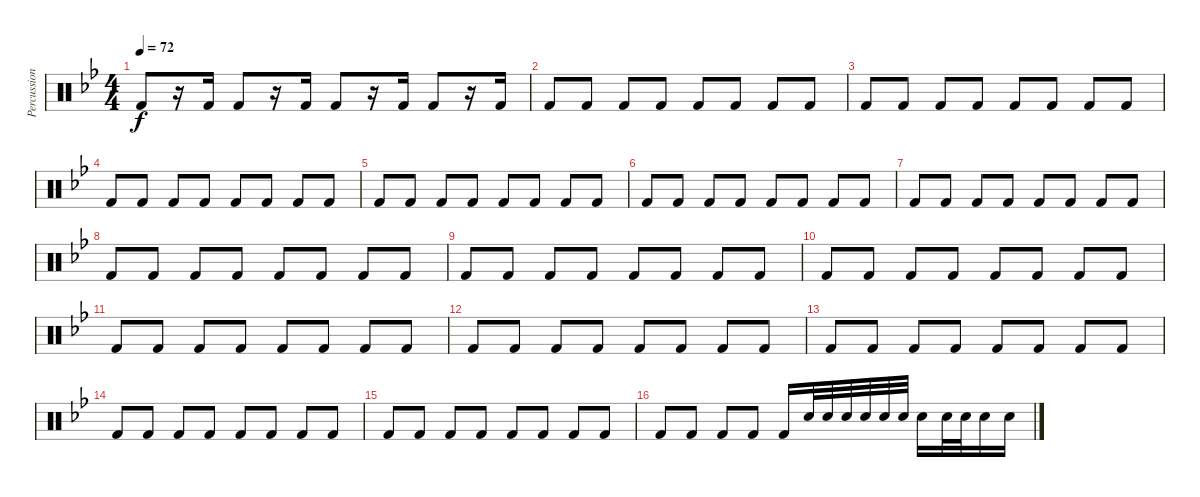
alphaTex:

\track ("Percussion" "Percussion") {instrument percussion}
\staff {score}
\articulation defaults
\ts (4 4)
\tempo 72
\clef neutral
\ks bb "Kick (hit) 2".8{dy f}
r.16 "Kick (hit) 2".16 "Kick (hit) 2".8 r.16 "Kick (hit) 2".16 "Kick (hit) 2".8 r.16 "Kick (hit) 2".16 "Kick (hit) 2".8 r.16 "Kick (hit) 2".16 |
"Kick (hit) 2".8 "Kick (hit) 2".8 "Kick (hit) 2".8 "Kick (hit) 2".8 "Kick (hit) 2".8 "Kick (hit) 2".8 "Kick (hit) 2".8 "Kick (hit) 2".8 |
"Kick (hit) 2".8 "Kick (hit) 2".8 "Kick (hit) 2".8 "Kick (hit) 2".8 "Kick (hit) 2".8 "Kick (hit) 2".8 "Kick (hit) 2".8 "Kick (hit) 2".8 |
"Kick (hit) 2".8 "Kick (hit) 2".8 "Kick (hit) 2".8 "Kick (hit) 2".8 "Kick (hit) 2".8 "Kick (hit) 2".8 "Kick (hit) 2".8 "Kick (hit) 2".8 |
"Kick (hit) 2".8 "Kick (hit) 2".8 "Kick (hit) 2".8 "Kick (hit) 2".8 "Kick (hit) 2".8 "Kick (hit) 2".8 "Kick (hit) 2".8 "Kick (hit) 2".8 |
"Kick (hit) 2".8 "Kick (hit) 2".8 "Kick (hit) 2".8 "Kick (hit) 2".8 "Kick (hit) 2".8 "Kick (hit) 2".8 "Kick (hit) 2".8 "Kick (hit) 2".8 |
"Kick (hit) 2".8 "Kick (hit) 2".8 "Kick (hit) 2".8 "Kick (hit) 2".8 "Kick (hit) 2".8 "Kick (hit) 2".8 "Kick (hit) 2".8 "Kick (hit) 2".8 |
"Kick (hit) 2".8 "Kick (hit) 2".8 "Kick (hit) 2".8 "Kick (hit) 2".8 "Kick (hit) 2".8 "Kick (hit) 2".8 "Kick (hit) 2".8 "Kick (hit) 2".8 |
"Kick (hit) 2".8 "Kick (hit) 2".8 "Kick (hit) 2".8 "Kick (hit) 2".8 "Kick (hit) 2".8 "Kick (hit) 2".8 "Kick (hit) 2".8 "Kick (hit) 2".8 |
"Kick (hit) 2".8 "Kick (hit) 2".8 "Kick (hit) 2".8 "Kick (hit) 2".8 "Kick (hit) 2".8 "Kick (hit) 2".8 "Kick (hit) 2".8 "Kick (hit) 2".8 |
"Kick (hit) 2".8 "Kick (hit) 2".8 "Kick (hit) 2".8 "Kick (hit) 2".8 "Kick (hit) 2".8 "Kick (hit) 2".8 "Kick (hit) 2".8 "Kick (hit) 2".8 |
"Kick (hit) 2".8 "Kick (hit) 2".8 "Kick (hit) 2".8 "Kick (hit) 2".8 "Kick (hit) 2".8 "Kick (hit) 2".8 "Kick (hit) 2".8 "Kick (hit) 2".8 |
"Kick (hit) 2".8 "Kick (hit) 2".8 "Kick (hit) 2".8 "Kick (hit) 2".8 "Kick (hit) 2".8 "Kick (hit) 2".8 "Kick (hit) 2".8 "Kick (hit) 2".8 |
"Kick (hit) 2".8 "Kick (hit) 2".8 "Kick (hit) 2".8 "Kick (hit) 2".8 "Kick (hit) 2".8 "Kick (hit) 2".8 "Kick (hit) 2".8 "Kick (hit) 2".8 |
"Kick (hit) 2".8 "Kick (hit) 2".8 "Kick (hit) 2".8 "Kick (hit) 2".8 "Kick (hit) 2".8 "Kick (hit) 2".8 "Kick (hit) 2".8 "Kick (hit) 2".8 |
"Kick (hit) 2".8 "Kick (hit) 2".8 "Kick (hit) 2".8 "Kick (hit) 2".8 "Kick (hit) 2".16 "Electric Snare (hit)".32 "Electric Snare (hit)".32 "Electric Snare (hit)".32 "Electric Snare (hit)".32 "Electric Snare (hit)".32 "Electric Snare (hit)".32 "Electric Snare (hit)".16 "Electric Snare (hit)".32 "Electric Snare (hit)".32 "Electric Snare (hit)".16 "Electric Snare (hit)".16
